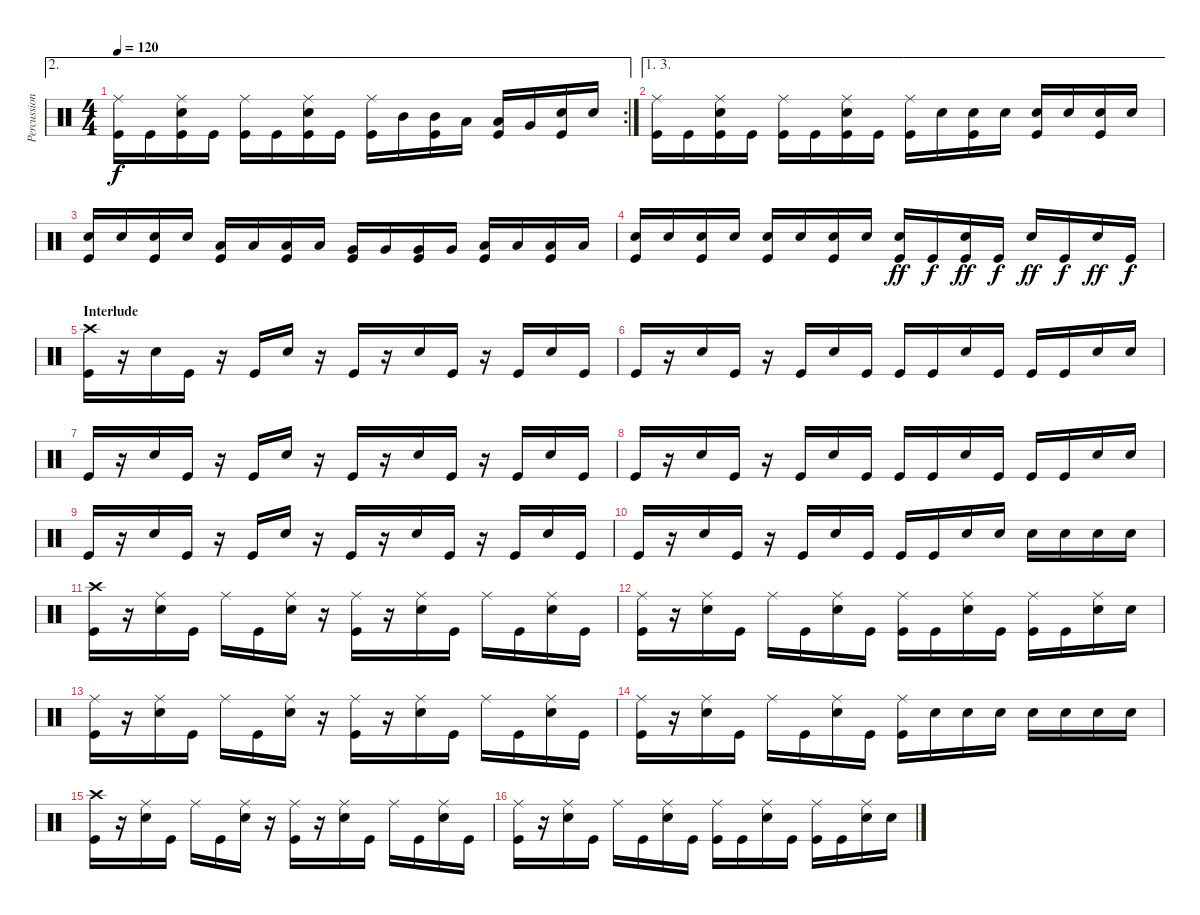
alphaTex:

\track ("Percussion" "Percussion") {instrument percussion}
\staff {score}
\articulation defaults
\ae 2
\rc 2
\ts (4 4)
\tempo 120
\clef neutral
\ks c
("Ride (middle)" "Kick (hit)").16{dy f} "Kick (hit)".16 ("Ride (middle)" "Snare (hit) 2" "Kick (hit)").16 "Kick (hit)".16 ("Ride (middle)" "Kick (hit)").16 "Kick (hit)".16 ("Ride (middle)" "Snare (hit) 2" "Kick (hit)").16 "Kick (hit)".16 ("Ride (middle)" "Kick (hit)").16 "Mid Tom (hit)".16 ("Mid Tom (hit)" "Kick (hit)").16 "Low Tom (hit)".16 ("Low Tom (hit)" "Kick (hit)").16 "Very Low Tom (hit)".16 ("Snare (hit) 2" "Kick (hit)").16 "Snare (hit) 2".16 |
\ae (1 3)
("Ride (middle)" "Kick (hit)").16 "Kick (hit)".16 ("Ride (middle)" "Snare (hit) 2" "Kick (hit)").16 "Kick (hit)".16 ("Ride (middle)" "Kick (hit)").16 "Kick (hit)".16 ("Ride (middle)" "Snare (hit) 2" "Kick (hit)").16 "Kick (hit)".16 ("Ride (middle)" "Kick (hit)").16 "Snare (hit) 2".16 ("Snare (hit) 2" "Kick (hit)").16 "Snare (hit) 2".16 ("Snare (hit) 2" "Kick (hit)").16 "Snare (hit) 2".16 ("Snare (hit) 2" "Kick (hit)").16 "Snare (hit) 2".16 |
("Snare (hit) 2" "Kick (hit)").16 "Snare (hit) 2".16 ("Snare (hit) 2" "Kick (hit)").16 "Snare (hit) 2".16 ("Low Tom (hit)" "Kick (hit)").16 "Low Tom (hit)".16 ("Low Tom (hit)" "Kick (hit)").16 "Low Tom (hit)".16 ("Very Low Tom (hit)" "Kick (hit)").16 "Very Low Tom (hit)".16 ("Very Low Tom (hit)" "Kick (hit)").16 "Very Low Tom (hit)".16 ("Low Floor Tom (hit)" "Kick (hit)").16 "Low Floor Tom (hit)".16 ("Low Floor Tom (hit)" "Kick (hit)").16 "Low Floor Tom (hit)".16 |
("Snare (hit) 2" "Kick (hit)").16 "Snare (hit) 2".16 ("Snare (hit) 2" "Kick (hit)").16 "Snare (hit) 2".16 ("Snare (hit) 2" "Kick (hit)").16 "Snare (hit) 2".16 ("Snare (hit) 2" "Kick (hit)").16 "Snare (hit) 2".16 ("Snare (hit) 2" "Kick (hit)").16{dy ff} "Kick (hit)".16{dy f} ("Snare (hit) 2" "Kick (hit)").16{dy ff} "Kick (hit)".16{dy f} "Snare (hit) 2".16{dy ff} "Kick (hit)".16{dy f} "Snare (hit) 2".16{dy ff} "Kick (hit)".16{dy f} |
\section ("" "Interlude")
("Crash high (hit)" "Kick (hit)").16 r.16 "Snare (hit) 2".16 "Kick (hit)".16 r.16 "Kick (hit)".16 "Snare (hit) 2".16 r.16 "Kick (hit)".16 r.16 "Snare (hit) 2".16 "Kick (hit)".16 r.16 "Kick (hit)".16 "Snare (hit) 2".16 "Kick (hit)".16 |
"Kick (hit)".16 r.16 "Snare (hit) 2".16 "Kick (hit)".16 r.16 "Kick (hit)".16 "Snare (hit) 2".16 "Kick (hit)".16 "Kick (hit)".16 "Kick (hit)".16 "Snare (hit) 2".16 "Kick (hit)".16 "Kick (hit)".16 "Kick (hit)".16 "Snare (hit) 2".16 "Snare (hit) 2".16 |
"Kick (hit)".16 r.16 "Snare (hit) 2".16 "Kick (hit)".16 r.16 "Kick (hit)".16 "Snare (hit) 2".16 r.16 "Kick (hit)".16 r.16 "Snare (hit) 2".16 "Kick (hit)".16 r.16 "Kick (hit)".16 "Snare (hit) 2".16 "Kick (hit)".16 |
"Kick (hit)".16 r.16 "Snare (hit) 2".16 "Kick (hit)".16 r.16 "Kick (hit)".16 "Snare (hit) 2".16 "Kick (hit)".16 "Kick (hit)".16 "Kick (hit)".16 "Snare (hit) 2".16 "Kick (hit)".16 "Kick (hit)".16 "Kick (hit)".16 "Snare (hit) 2".16 "Snare (hit) 2".16 |
"Kick (hit)".16 r.16 "Snare (hit) 2".16 "Kick (hit)".16 r.16 "Kick (hit)".16 "Snare (hit) 2".16 r.16 "Kick (hit)".16 r.16 "Snare (hit) 2".16 "Kick (hit)".16 r.16 "Kick (hit)".16 "Snare (hit) 2".16 "Kick (hit)".16 |
"Kick (hit)".16 r.16 "Snare (hit) 2".16 "Kick (hit)".16 r.16 "Kick (hit)".16 "Snare (hit) 2".16 "Kick (hit)".16 "Kick (hit)".16 "Kick (hit)".16 "Snare (hit) 2".16 "Snare (hit) 2".16 "Snare (hit) 2".16 "Snare (hit) 2".16 "Snare (hit) 2".16 "Snare (hit) 2".16 |
("Crash high (hit)" "Kick (hit)").16 r.16 ("Ride (middle)" "Snare (hit) 2").16 "Kick (hit)".16 "Ride (middle)".16 "Kick (hit)".16 ("Ride (middle)" "Snare (hit) 2").16 r.16 ("Ride (middle)" "Kick (hit)").16 r.16 ("Ride (middle)" "Snare (hit) 2").16 "Kick (hit)".16 "Ride (middle)".16 "Kick (hit)".16 ("Ride (middle)" "Snare (hit) 2").16 "Kick (hit)".16 |
("Ride (middle)" "Kick (hit)").16 r.16 ("Ride (middle)" "Snare (hit) 2").16 "Kick (hit)".16 "Ride (middle)".16 "Kick (hit)".16 ("Ride (middle)" "Snare (hit) 2").16 "Kick (hit)".16 ("Ride (middle)" "Kick (hit)").16 "Kick (hit)".16 ("Ride (middle)" "Snare (hit) 2").16 "Kick (hit)".16 ("Ride (middle)" "Kick (hit)").16 "Kick (hit)".16 ("Ride (middle)" "Snare (hit) 2").16 "Snare (hit) 2".16 |
("Ride (middle)" "Kick (hit)").16 r.16 ("Ride (middle)" "Snare (hit) 2").16 "Kick (hit)".16 "Ride (middle)".16 "Kick (hit)".16 ("Ride (middle)" "Snare (hit) 2").16 r.16 ("Ride (middle)" "Kick (hit)").16 r.16 ("Ride (middle)" "Snare (hit) 2").16 "Kick (hit)".16 "Ride (middle)".16 "Kick (hit)".16 ("Ride (middle)" "Snare (hit) 2").16 "Kick (hit)".16 |
("Ride (middle)" "Kick (hit)").16 r.16 ("Ride (middle)" "Snare (hit) 2").16 "Kick (hit)".16 "Ride (middle)".16 "Kick (hit)".16 ("Ride (middle)" "Snare (hit) 2").16 "Kick (hit)".16 ("Ride (middle)" "Kick (hit)").16 "Snare (hit) 2".16 "Snare (hit) 2".16 "Snare (hit) 2".16 "Snare (hit) 2".16 "Snare (hit) 2".16 "Snare (hit) 2".16 "Snare (hit) 2".16 |
("Crash high (hit)" "Kick (hit)").16 r.16 ("Ride (middle)" "Snare (hit) 2").16 "Kick (hit)".16 "Ride (middle)".16 "Kick (hit)".16 ("Ride (middle)" "Snare (hit) 2").16 r.16 ("Ride (middle)" "Kick (hit)").16 r.16 ("Ride (middle)" "Snare (hit) 2").16 "Kick (hit)".16 "Ride (middle)".16 "Kick (hit)".16 ("Ride (middle)" "Snare (hit) 2").16 "Kick (hit)".16 |
("Ride (middle)" "Kick (hit)").16 r.16 ("Ride (middle)" "Snare (hit) 2").16 "Kick (hit)".16 "Ride (middle)".16 "Kick (hit)".16 ("Ride (middle)" "Snare (hit) 2").16 "Kick (hit)".16 ("Ride (middle)" "Kick (hit)").16 "Kick (hit)".16 ("Ride (middle)" "Snare (hit) 2").16 "Kick (hit)".16 ("Ride (middle)" "Kick (hit)").16 "Kick (hit)".16 ("Ride (middle)" "Snare (hit) 2").16 "Snare (hit) 2".16
